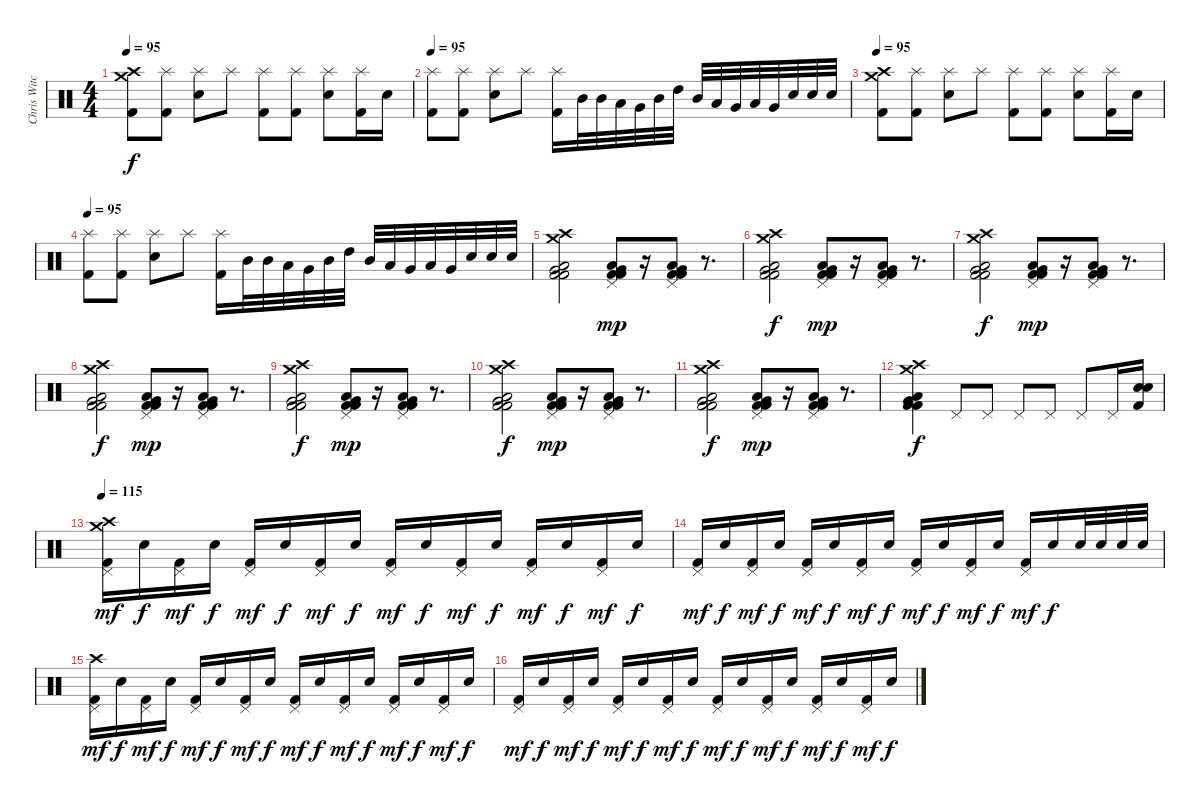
\track ("Chris Witchhunter (Drums)" "Chris Witc") {instrument percussion}
\staff {score}
\articulation defaults
\ts (4 4)
\tempo 95
\clef neutral
\ks c
("Crash high (hit)" "Crash medium (hit)" "Kick (hit) 2").8{dy f} ("Splash (hit)" "Kick (hit) 2").8 ("Splash (hit)" "Snare (hit) 2").8 "Splash (hit)".8 ("Splash (hit)" "Kick (hit) 2").8 ("Splash (hit)" "Kick (hit) 2").8 ("Splash (hit)" "Snare (hit) 2").8 ("Splash (hit)" "Kick (hit) 2").16 "Snare (hit) 2".16 |
\tempo 95
("Splash (hit)" "Kick (hit) 2").8 ("Splash (hit)" "Kick (hit) 2").8 ("Splash (hit)" "Snare (hit) 2").8 "Splash (hit)".8 ("Splash (hit)" "Kick (hit) 2").16 "Mid Tom (hit)".32 "Mid Tom (hit)".32 "Low Tom (hit)".32 "Very Low Tom (hit)".32 "Mid Tom (hit)".32 "High Tom (hit)".32 "Mid Tom (hit)".32 "Low Tom (hit)".32 "Very Low Tom (hit)".32 "Low Tom (hit)".32 "Very Low Tom (hit)".32 "Snare (hit) 2".32 "Snare (hit) 2".32 "Snare (hit) 2".32 |
\tempo 95
("Crash high (hit)" "Crash medium (hit)" "Kick (hit) 2").8 ("Splash (hit)" "Kick (hit) 2").8 ("Splash (hit)" "Snare (hit) 2").8 "Splash (hit)".8 ("Splash (hit)" "Kick (hit) 2").8 ("Splash (hit)" "Kick (hit) 2").8 ("Splash (hit)" "Snare (hit) 2").8 ("Splash (hit)" "Kick (hit) 2").16 "Snare (hit) 2".16 |
\tempo 95
("Splash (hit)" "Kick (hit) 2").8 ("Splash (hit)" "Kick (hit) 2").8 ("Splash (hit)" "Snare (hit) 2").8 "Splash (hit)".8 ("Splash (hit)" "Kick (hit) 2").16 "Mid Tom (hit)".32 "Mid Tom (hit)".32 "Low Tom (hit)".32 "Very Low Tom (hit)".32 "Mid Tom (hit)".32 "High Tom (hit)".32 "Mid Tom (hit)".32 "Low Tom (hit)".32 "Very Low Tom (hit)".32 "Low Tom (hit)".32 "Very Low Tom (hit)".32 "Snare (hit) 2".32 "Snare (hit) 2".32 "Snare (hit) 2".32 |
("Very Low Tom (hit)" "Low Floor Tom (hit)" "Crash medium (hit)" "Crash high (hit)" "Kick (hit) 2" "Kick (hit) 2").2 ("Pedal Hi-Hat (hit)" "Low Floor Tom (hit)" "Very Low Tom (hit)" "Kick (hit) 2" "Kick (hit) 2").8{dy mp} r.16 ("Pedal Hi-Hat (hit)" "Low Floor Tom (hit)" "Very Low Tom (hit)" "Kick (hit) 2" "Kick (hit) 2").8 r.8{d} |
("Very Low Tom (hit)" "Low Floor Tom (hit)" "Crash medium (hit)" "Crash high (hit)" "Kick (hit) 2" "Kick (hit) 2").2{dy f} ("Pedal Hi-Hat (hit)" "Low Floor Tom (hit)" "Very Low Tom (hit)" "Kick (hit) 2" "Kick (hit) 2").8{dy mp} r.16 ("Pedal Hi-Hat (hit)" "Low Floor Tom (hit)" "Very Low Tom (hit)" "Kick (hit) 2" "Kick (hit) 2").8 r.8{d} |
("Very Low Tom (hit)" "Low Floor Tom (hit)" "Crash medium (hit)" "Crash high (hit)" "Kick (hit) 2" "Kick (hit) 2").2{dy f} ("Pedal Hi-Hat (hit)" "Low Floor Tom (hit)" "Very Low Tom (hit)" "Kick (hit) 2" "Kick (hit) 2").8{dy mp} r.16 ("Pedal Hi-Hat (hit)" "Low Floor Tom (hit)" "Very Low Tom (hit)" "Kick (hit) 2" "Kick (hit) 2").8 r.8{d} |
("Very Low Tom (hit)" "Low Floor Tom (hit)" "Crash medium (hit)" "Crash high (hit)" "Kick (hit) 2" "Kick (hit) 2").2{dy f} ("Pedal Hi-Hat (hit)" "Low Floor Tom (hit)" "Very Low Tom (hit)" "Kick (hit) 2" "Kick (hit) 2").8{dy mp} r.16 ("Pedal Hi-Hat (hit)" "Low Floor Tom (hit)" "Very Low Tom (hit)" "Kick (hit) 2" "Kick (hit) 2").8 r.8{d} |
("Very Low Tom (hit)" "Low Floor Tom (hit)" "Crash medium (hit)" "Crash high (hit)" "Kick (hit) 2" "Kick (hit) 2").2{dy f} ("Pedal Hi-Hat (hit)" "Low Floor Tom (hit)" "Very Low Tom (hit)" "Kick (hit) 2" "Kick (hit) 2").8{dy mp} r.16 ("Pedal Hi-Hat (hit)" "Low Floor Tom (hit)" "Very Low Tom (hit)" "Kick (hit) 2" "Kick (hit) 2").8 r.8{d} |
("Very Low Tom (hit)" "Low Floor Tom (hit)" "Crash medium (hit)" "Crash high (hit)" "Kick (hit) 2" "Kick (hit) 2").2{dy f} ("Pedal Hi-Hat (hit)" "Low Floor Tom (hit)" "Very Low Tom (hit)" "Kick (hit) 2" "Kick (hit) 2").8{dy mp} r.16 ("Pedal Hi-Hat (hit)" "Low Floor Tom (hit)" "Very Low Tom (hit)" "Kick (hit) 2" "Kick (hit) 2").8 r.8{d} |
("Very Low Tom (hit)" "Low Floor Tom (hit)" "Crash medium (hit)" "Crash high (hit)" "Kick (hit) 2" "Kick (hit) 2").2{dy f} ("Pedal Hi-Hat (hit)" "Low Floor Tom (hit)" "Very Low Tom (hit)" "Kick (hit) 2" "Kick (hit) 2").8{dy mp} r.16 ("Pedal Hi-Hat (hit)" "Low Floor Tom (hit)" "Very Low Tom (hit)" "Kick (hit) 2" "Kick (hit) 2").8 r.8{d} |
("Very Low Tom (hit)" "Low Floor Tom (hit)" "Crash medium (hit)" "Crash high (hit)" "Kick (hit) 2" "Kick (hit) 2").4{dy f} "Pedal Hi-Hat (hit)".8 "Pedal Hi-Hat (hit)".8 "Pedal Hi-Hat (hit)".8 "Pedal Hi-Hat (hit)".8 "Pedal Hi-Hat (hit)".8 "Pedal Hi-Hat (hit)".16 ("Snare (hit) 2" "Snare (hit) 2" "Kick (hit) 2").16 |
\tempo 115
("Crash high (hit)" "Crash medium (hit)" "Pedal Hi-Hat (hit)" "Kick (hit) 2").16{dy mf} "Snare (hit) 2".16{dy f} ("Pedal Hi-Hat (hit)" "Kick (hit) 2").16{dy mf} "Snare (hit) 2".16{dy f} ("Pedal Hi-Hat (hit)" "Kick (hit) 2").16{dy mf} "Snare (hit) 2".16{dy f} ("Pedal Hi-Hat (hit)" "Kick (hit) 2").16{dy mf} "Snare (hit) 2".16{dy f} ("Pedal Hi-Hat (hit)" "Kick (hit) 2").16{dy mf} "Snare (hit) 2".16{dy f} ("Pedal Hi-Hat (hit)" "Kick (hit) 2").16{dy mf} "Snare (hit) 2".16{dy f} ("Pedal Hi-Hat (hit)" "Kick (hit) 2").16{dy mf} "Snare (hit) 2".16{dy f} ("Pedal Hi-Hat (hit)" "Kick (hit) 2").16{dy mf} "Snare (hit) 2".16{dy f} |
("Pedal Hi-Hat (hit)" "Kick (hit) 2").16{dy mf} "Snare (hit) 2".16{dy f} ("Pedal Hi-Hat (hit)" "Kick (hit) 2").16{dy mf} "Snare (hit) 2".16{dy f} ("Pedal Hi-Hat (hit)" "Kick (hit) 2").16{dy mf} "Snare (hit) 2".16{dy f} ("Pedal Hi-Hat (hit)" "Kick (hit) 2").16{dy mf} "Snare (hit) 2".16{dy f} ("Pedal Hi-Hat (hit)" "Kick (hit) 2").16{dy mf} "Snare (hit) 2".16{dy f} ("Pedal Hi-Hat (hit)" "Kick (hit) 2").16{dy mf} "Snare (hit) 2".16{dy f} ("Pedal Hi-Hat (hit)" "Kick (hit) 2").16{dy mf} "Snare (hit) 2".16{dy f} "Snare (hit) 2".32 "Snare (hit) 2".32 "Snare (hit) 2".32 "Snare (hit) 2".32 |
("Crash high (hit)" "Pedal Hi-Hat (hit)" "Kick (hit) 2").16{dy mf} "Snare (hit) 2".16{dy f} ("Pedal Hi-Hat (hit)" "Kick (hit) 2").16{dy mf} "Snare (hit) 2".16{dy f} ("Pedal Hi-Hat (hit)" "Kick (hit) 2").16{dy mf} "Snare (hit) 2".16{dy f} ("Pedal Hi-Hat (hit)" "Kick (hit) 2").16{dy mf} "Snare (hit) 2".16{dy f} ("Pedal Hi-Hat (hit)" "Kick (hit) 2").16{dy mf} "Snare (hit) 2".16{dy f} ("Pedal Hi-Hat (hit)" "Kick (hit) 2").16{dy mf} "Snare (hit) 2".16{dy f} ("Pedal Hi-Hat (hit)" "Kick (hit) 2").16{dy mf} "Snare (hit) 2".16{dy f} ("Pedal Hi-Hat (hit)" "Kick (hit) 2").16{dy mf} "Snare (hit) 2".16{dy f} |
("Pedal Hi-Hat (hit)" "Kick (hit) 2").16{dy mf} "Snare (hit) 2".16{dy f} ("Pedal Hi-Hat (hit)" "Kick (hit) 2").16{dy mf} "Snare (hit) 2".16{dy f} ("Pedal Hi-Hat (hit)" "Kick (hit) 2").16{dy mf} "Snare (hit) 2".16{dy f} ("Pedal Hi-Hat (hit)" "Kick (hit) 2").16{dy mf} "Snare (hit) 2".16{dy f} ("Pedal Hi-Hat (hit)" "Kick (hit) 2").16{dy mf} "Snare (hit) 2".16{dy f} ("Pedal Hi-Hat (hit)" "Kick (hit) 2").16{dy mf} "Snare (hit) 2".16{dy f} ("Pedal Hi-Hat (hit)" "Kick (hit) 2").16{dy mf} "Snare (hit) 2".16{dy f} ("Pedal Hi-Hat (hit)" "Kick (hit) 2").16{dy mf} "Snare (hit) 2".16{dy f}
